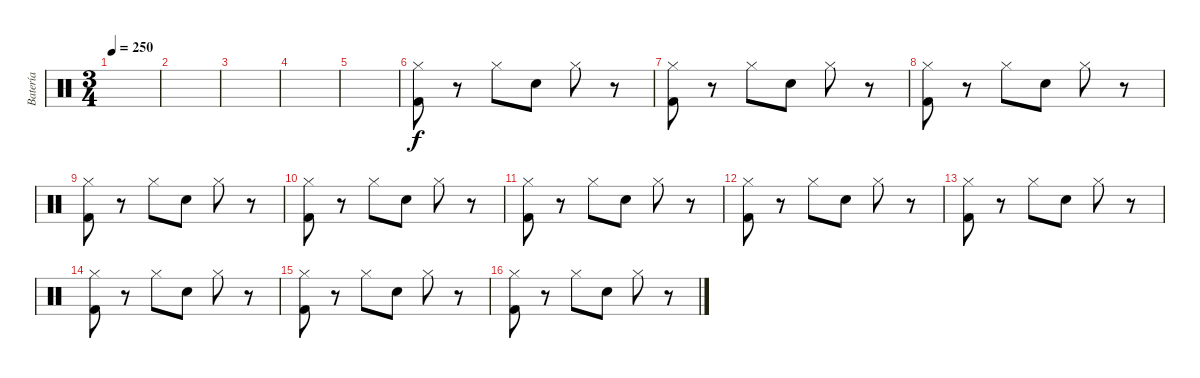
\track ("Batería" "Batería") {instrument percussion}
\staff {score}
\articulation defaults
\ts (3 4)
\tempo 250
\clef neutral
\ks c
|
|
|
|
|
("Kick (hit) 2" "Hi-Hat (closed)").8 r.8 "Hi-Hat (closed)".8 "Snare (hit) 2".8 "Hi-Hat (closed)".8 r.8 |
("Kick (hit) 2" "Hi-Hat (closed)").8 r.8 "Hi-Hat (closed)".8 "Snare (hit) 2".8 "Hi-Hat (closed)".8 r.8 |
("Kick (hit) 2" "Hi-Hat (closed)").8 r.8 "Hi-Hat (closed)".8 "Snare (hit) 2".8 "Hi-Hat (closed)".8 r.8 |
("Kick (hit) 2" "Hi-Hat (closed)").8 r.8 "Hi-Hat (closed)".8 "Snare (hit) 2".8 "Hi-Hat (closed)".8 r.8 |
("Kick (hit) 2" "Hi-Hat (closed)").8 r.8 "Hi-Hat (closed)".8 "Snare (hit) 2".8 "Hi-Hat (closed)".8 r.8 |
("Kick (hit) 2" "Hi-Hat (closed)").8 r.8 "Hi-Hat (closed)".8 "Snare (hit) 2".8 "Hi-Hat (closed)".8 r.8 |
("Kick (hit) 2" "Hi-Hat (closed)").8 r.8 "Hi-Hat (closed)".8 "Snare (hit) 2".8 "Hi-Hat (closed)".8 r.8 |
("Kick (hit) 2" "Hi-Hat (closed)").8 r.8 "Hi-Hat (closed)".8 "Snare (hit) 2".8 "Hi-Hat (closed)".8 r.8 |
("Kick (hit) 2" "Hi-Hat (closed)").8 r.8 "Hi-Hat (closed)".8 "Snare (hit) 2".8 "Hi-Hat (closed)".8 r.8 |
("Kick (hit) 2" "Hi-Hat (closed)").8 r.8 "Hi-Hat (closed)".8 "Snare (hit) 2".8 "Hi-Hat (closed)".8 r.8 |
("Kick (hit) 2" "Hi-Hat (closed)").8 r.8 "Hi-Hat (closed)".8 "Snare (hit) 2".8 "Hi-Hat (closed)".8 r.8
